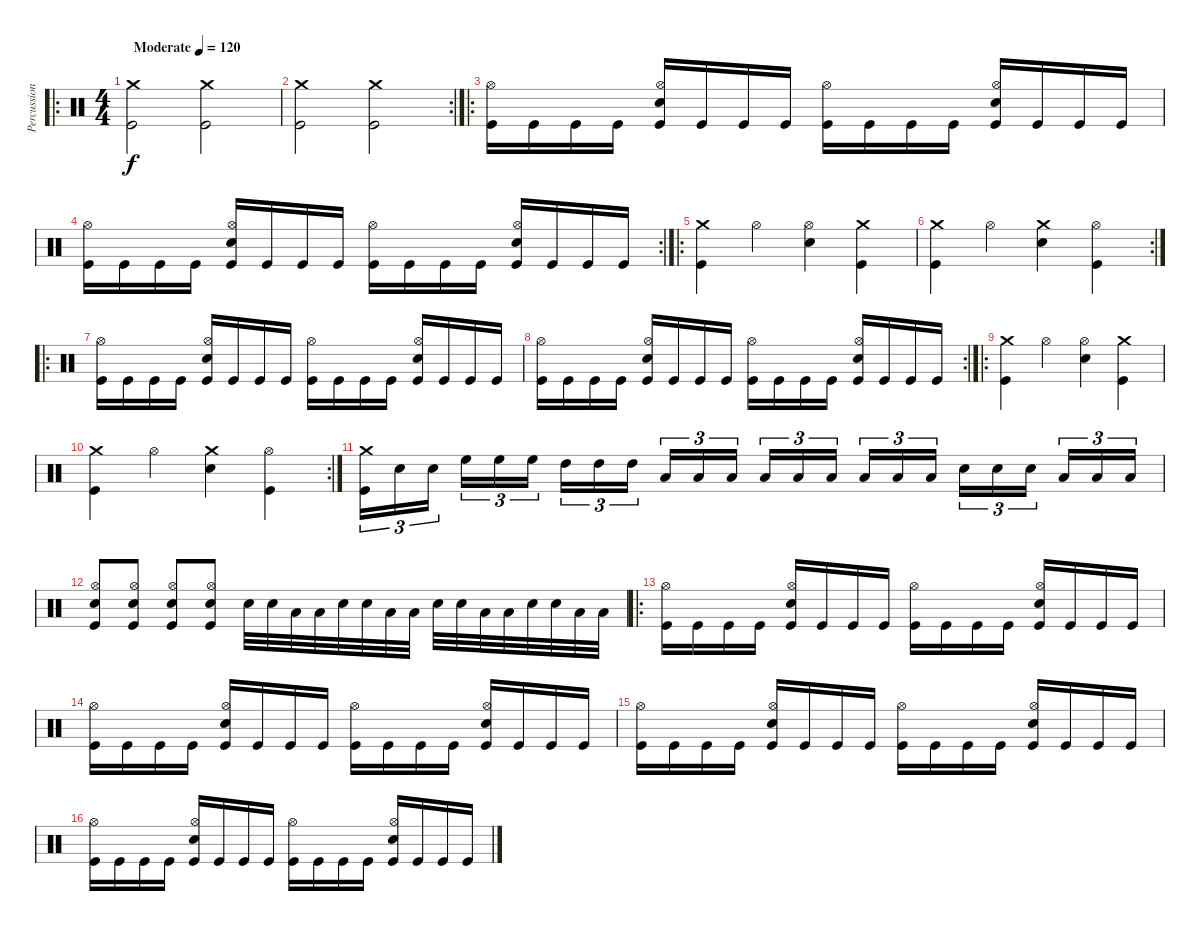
\track ("Percussion" "Percussion") {instrument percussion}
\staff {score}
\articulation defaults
\ro
\ts (4 4)
\tempo (120 "Moderate")
\clef neutral
\ks c
("Crash medium (hit)" "Kick (hit)").2{dy f} ("Crash medium (hit)" "Kick (hit)").2 |
\rc 2
("Crash medium (hit)" "Kick (hit)").2 ("Crash medium (hit)" "Kick (hit)").2 |
\ro
("Hi-Hat (open)" "Kick (hit)").16 "Kick (hit)".16 "Kick (hit)".16 "Kick (hit)".16 ("Hi-Hat (open)" "Snare (hit) 2" "Kick (hit)").16 "Kick (hit)".16 "Kick (hit)".16 "Kick (hit)".16 ("Hi-Hat (open)" "Kick (hit)").16 "Kick (hit)".16 "Kick (hit)".16 "Kick (hit)".16 ("Hi-Hat (open)" "Snare (hit) 2" "Kick (hit)").16 "Kick (hit)".16 "Kick (hit)".16 "Kick (hit)".16 |
\rc 2
("Hi-Hat (open)" "Kick (hit)").16 "Kick (hit)".16 "Kick (hit)".16 "Kick (hit)".16 ("Hi-Hat (open)" "Snare (hit) 2" "Kick (hit)").16 "Kick (hit)".16 "Kick (hit)".16 "Kick (hit)".16 ("Hi-Hat (open)" "Kick (hit)").16 "Kick (hit)".16 "Kick (hit)".16 "Kick (hit)".16 ("Hi-Hat (open)" "Snare (hit) 2" "Kick (hit)").16 "Kick (hit)".16 "Kick (hit)".16 "Kick (hit)".16 |
\ro
("Crash medium (hit)" "Kick (hit)").4 "Hi-Hat (open)".4 ("Hi-Hat (open)" "Snare (hit) 2").4 ("Crash medium (hit)" "Kick (hit)").4 |
\rc 2
("Crash medium (hit)" "Kick (hit)").4 "Hi-Hat (open)".4 ("Crash medium (hit)" "Snare (hit) 2").4 ("Hi-Hat (open)" "Kick (hit)").4 |
\ro
("Hi-Hat (open)" "Kick (hit)").16 "Kick (hit)".16 "Kick (hit)".16 "Kick (hit)".16 ("Hi-Hat (open)" "Snare (hit) 2" "Kick (hit)").16 "Kick (hit)".16 "Kick (hit)".16 "Kick (hit)".16 ("Hi-Hat (open)" "Kick (hit)").16 "Kick (hit)".16 "Kick (hit)".16 "Kick (hit)".16 ("Hi-Hat (open)" "Snare (hit) 2" "Kick (hit)").16 "Kick (hit)".16 "Kick (hit)".16 "Kick (hit)".16 |
\rc 2
("Hi-Hat (open)" "Kick (hit)").16 "Kick (hit)".16 "Kick (hit)".16 "Kick (hit)".16 ("Hi-Hat (open)" "Snare (hit) 2" "Kick (hit)").16 "Kick (hit)".16 "Kick (hit)".16 "Kick (hit)".16 ("Hi-Hat (open)" "Kick (hit)").16 "Kick (hit)".16 "Kick (hit)".16 "Kick (hit)".16 ("Hi-Hat (open)" "Snare (hit) 2" "Kick (hit)").16 "Kick (hit)".16 "Kick (hit)".16 "Kick (hit)".16 |
\ro
("Crash medium (hit)" "Kick (hit)").4 "Hi-Hat (open)".4 ("Hi-Hat (open)" "Snare (hit) 2").4 ("Crash medium (hit)" "Kick (hit)").4 |
\rc 2
("Crash medium (hit)" "Kick (hit)").4 "Hi-Hat (open)".4 ("Crash medium (hit)" "Snare (hit) 2").4 ("Hi-Hat (open)" "Kick (hit)").4 |
("Crash medium (hit)" "Kick (hit)").16{tu (3 2)} "Snare (hit) 2".16{tu (3 2)} "Snare (hit) 2".16{tu (3 2) beam splitsecondary} "High Floor Tom (hit)".16{tu (3 2)} "High Floor Tom (hit)".16{tu (3 2)} "High Floor Tom (hit)".16{tu (3 2)} "High Tom (hit)".16{tu (3 2)} "High Tom (hit)".16{tu (3 2)} "High Tom (hit)".16{tu (3 2) beam splitsecondary} "Low Tom (hit)".16{tu (3 2)} "Low Tom (hit)".16{tu (3 2)} "Low Tom (hit)".16{tu (3 2)} "Low Floor Tom (hit)".16{tu (3 2)} "Low Floor Tom (hit)".16{tu (3 2)} "Low Floor Tom (hit)".16{tu (3 2) beam splitsecondary} "Low Tom (hit)".16{tu (3 2)} "Low Tom (hit)".16{tu (3 2)} "Low Tom (hit)".16{tu (3 2)} "Snare (hit) 2".16{tu (3 2)} "Snare (hit) 2".16{tu (3 2)} "Snare (hit) 2".16{tu (3 2) beam splitsecondary} "Low Floor Tom (hit)".16{tu (3 2)} "Low Floor Tom (hit)".16{tu (3 2)} "Low Floor Tom (hit)".16{tu (3 2)} |
("Hi-Hat (open)" "Snare (hit) 2" "Kick (hit)").8 ("Hi-Hat (open)" "Snare (hit) 2" "Kick (hit)").8 ("Hi-Hat (open)" "Snare (hit) 2" "Kick (hit)").8 ("Hi-Hat (open)" "Snare (hit) 2" "Kick (hit)").8 "Snare (hit) 2".32 "Snare (hit) 2".32 "Low Floor Tom (hit)".32 "Low Floor Tom (hit)".32 "Snare (hit) 2".32 "Snare (hit) 2".32 "Low Floor Tom (hit)".32 "Low Floor Tom (hit)".32 "Snare (hit) 2".32 "Snare (hit) 2".32 "Low Floor Tom (hit)".32 "Low Floor Tom (hit)".32 "Snare (hit) 2".32 "Snare (hit) 2".32 "Low Floor Tom (hit)".32 "Low Floor Tom (hit)".32 |
\ro
("Hi-Hat (open)" "Kick (hit)").16 "Kick (hit)".16 "Kick (hit)".16 "Kick (hit)".16 ("Hi-Hat (open)" "Snare (hit) 2" "Kick (hit)").16 "Kick (hit)".16 "Kick (hit)".16 "Kick (hit)".16 ("Hi-Hat (open)" "Kick (hit)").16 "Kick (hit)".16 "Kick (hit)".16 "Kick (hit)".16 ("Hi-Hat (open)" "Snare (hit) 2" "Kick (hit)").16 "Kick (hit)".16 "Kick (hit)".16 "Kick (hit)".16 |
("Hi-Hat (open)" "Kick (hit)").16 "Kick (hit)".16 "Kick (hit)".16 "Kick (hit)".16 ("Hi-Hat (open)" "Snare (hit) 2" "Kick (hit)").16 "Kick (hit)".16 "Kick (hit)".16 "Kick (hit)".16 ("Hi-Hat (open)" "Kick (hit)").16 "Kick (hit)".16 "Kick (hit)".16 "Kick (hit)".16 ("Hi-Hat (open)" "Snare (hit) 2" "Kick (hit)").16 "Kick (hit)".16 "Kick (hit)".16 "Kick (hit)".16 |
("Hi-Hat (open)" "Kick (hit)").16 "Kick (hit)".16 "Kick (hit)".16 "Kick (hit)".16 ("Hi-Hat (open)" "Snare (hit) 2" "Kick (hit)").16 "Kick (hit)".16 "Kick (hit)".16 "Kick (hit)".16 ("Hi-Hat (open)" "Kick (hit)").16 "Kick (hit)".16 "Kick (hit)".16 "Kick (hit)".16 ("Hi-Hat (open)" "Snare (hit) 2" "Kick (hit)").16 "Kick (hit)".16 "Kick (hit)".16 "Kick (hit)".16 |
("Hi-Hat (open)" "Kick (hit)").16 "Kick (hit)".16 "Kick (hit)".16 "Kick (hit)".16 ("Hi-Hat (open)" "Snare (hit) 2" "Kick (hit)").16 "Kick (hit)".16 "Kick (hit)".16 "Kick (hit)".16 ("Hi-Hat (open)" "Kick (hit)").16 "Kick (hit)".16 "Kick (hit)".16 "Kick (hit)".16 ("Hi-Hat (open)" "Snare (hit) 2" "Kick (hit)").16 "Kick (hit)".16 "Kick (hit)".16 "Kick (hit)".16
